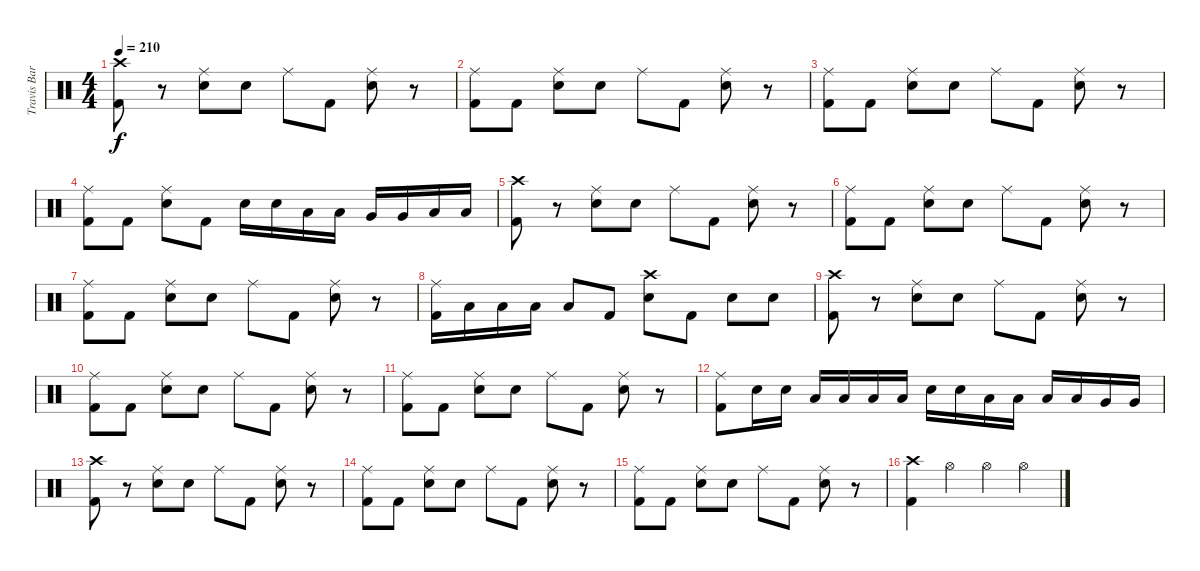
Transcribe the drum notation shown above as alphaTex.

\track ("Travis Barker" "Travis Bar") {instrument percussion}
\staff {score}
\articulation defaults
\ts (4 4)
\tempo 210
\clef neutral
\ks c
("Crash high (hit)" "Kick (hit) 2").8{dy f} r.8 ("Ride (middle)" "Electric Snare (hit)").8 "Electric Snare (hit)".8 "Ride (middle)".8 "Kick (hit) 2".8 ("Ride (middle)" "Electric Snare (hit)").8 r.8 |
("Ride (middle)" "Kick (hit) 2").8 "Kick (hit) 2".8 ("Ride (middle)" "Electric Snare (hit)").8 "Electric Snare (hit)".8 "Ride (middle)".8 "Kick (hit) 2".8 ("Ride (middle)" "Electric Snare (hit)").8 r.8 |
("Ride (middle)" "Kick (hit) 2").8 "Kick (hit) 2".8 ("Ride (middle)" "Electric Snare (hit)").8 "Electric Snare (hit)".8 "Ride (middle)".8 "Kick (hit) 2".8 ("Ride (middle)" "Electric Snare (hit)").8 r.8 |
("Ride (middle)" "Kick (hit) 2").8 "Kick (hit) 2".8 ("Ride (middle)" "Electric Snare (hit)").8 "Kick (hit) 2".8 "Electric Snare (hit)".16 "Electric Snare (hit)".16 "Low Tom (hit)".16 "Low Tom (hit)".16 "Very Low Tom (hit)".16 "Very Low Tom (hit)".16 "Low Floor Tom (hit)".16 "Low Floor Tom (hit)".16 |
("Crash high (hit)" "Kick (hit) 2").8 r.8 ("Ride (middle)" "Electric Snare (hit)").8 "Electric Snare (hit)".8 "Ride (middle)".8 "Kick (hit) 2".8 ("Ride (middle)" "Electric Snare (hit)").8 r.8 |
("Ride (middle)" "Kick (hit) 2").8 "Kick (hit) 2".8 ("Ride (middle)" "Electric Snare (hit)").8 "Electric Snare (hit)".8 "Ride (middle)".8 "Kick (hit) 2".8 ("Ride (middle)" "Electric Snare (hit)").8 r.8 |
("Ride (middle)" "Kick (hit) 2").8 "Kick (hit) 2".8 ("Ride (middle)" "Electric Snare (hit)").8 "Electric Snare (hit)".8 "Ride (middle)".8 "Kick (hit) 2".8 ("Ride (middle)" "Electric Snare (hit)").8 r.8 |
("Ride (middle)" "Kick (hit) 2").16 "Low Tom (hit)".16 "Low Tom (hit)".16 "Low Tom (hit)".16 "Low Tom (hit)".8 "Kick (hit) 2".8 ("Crash high (hit)" "Electric Snare (hit)").8 "Kick (hit) 2".8 "Electric Snare (hit)".8 "Electric Snare (hit)".8 |
("Crash high (hit)" "Kick (hit) 2").8 r.8 ("Ride (middle)" "Electric Snare (hit)").8 "Electric Snare (hit)".8 "Ride (middle)".8 "Kick (hit) 2".8 ("Ride (middle)" "Electric Snare (hit)").8 r.8 |
("Ride (middle)" "Kick (hit) 2").8 "Kick (hit) 2".8 ("Ride (middle)" "Electric Snare (hit)").8 "Electric Snare (hit)".8 "Ride (middle)".8 "Kick (hit) 2".8 ("Ride (middle)" "Electric Snare (hit)").8 r.8 |
("Ride (middle)" "Kick (hit) 2").8 "Kick (hit) 2".8 ("Ride (middle)" "Electric Snare (hit)").8 "Electric Snare (hit)".8 "Ride (middle)".8 "Kick (hit) 2".8 ("Ride (middle)" "Electric Snare (hit)").8 r.8 |
("Ride (middle)" "Kick (hit) 2").8 "Electric Snare (hit)".16 "Electric Snare (hit)".16 "Low Tom (hit)".16 "Low Tom (hit)".16 "Low Tom (hit)".16 "Low Tom (hit)".16 "Electric Snare (hit)".16 "Electric Snare (hit)".16 "Low Tom (hit)".16 "Low Tom (hit)".16 "Low Tom (hit)".16 "Low Tom (hit)".16 "Very Low Tom (hit)".16 "Very Low Tom (hit)".16 |
("Crash high (hit)" "Kick (hit) 2").8 r.8 ("Ride (middle)" "Electric Snare (hit)").8 "Electric Snare (hit)".8 "Ride (middle)".8 "Kick (hit) 2".8 ("Ride (middle)" "Electric Snare (hit)").8 r.8 |
("Ride (middle)" "Kick (hit) 2").8 "Kick (hit) 2".8 ("Ride (middle)" "Electric Snare (hit)").8 "Electric Snare (hit)".8 "Ride (middle)".8 "Kick (hit) 2".8 ("Ride (middle)" "Electric Snare (hit)").8 r.8 |
("Ride (middle)" "Kick (hit) 2").8 "Kick (hit) 2".8 ("Ride (middle)" "Electric Snare (hit)").8 "Electric Snare (hit)".8 "Ride (middle)".8 "Kick (hit) 2".8 ("Ride (middle)" "Electric Snare (hit)").8 r.8 |
("Crash high (hit)" "Kick (hit) 2").4 "Hi-Hat (open)".4 "Hi-Hat (open)".4 "Hi-Hat (open)".4
